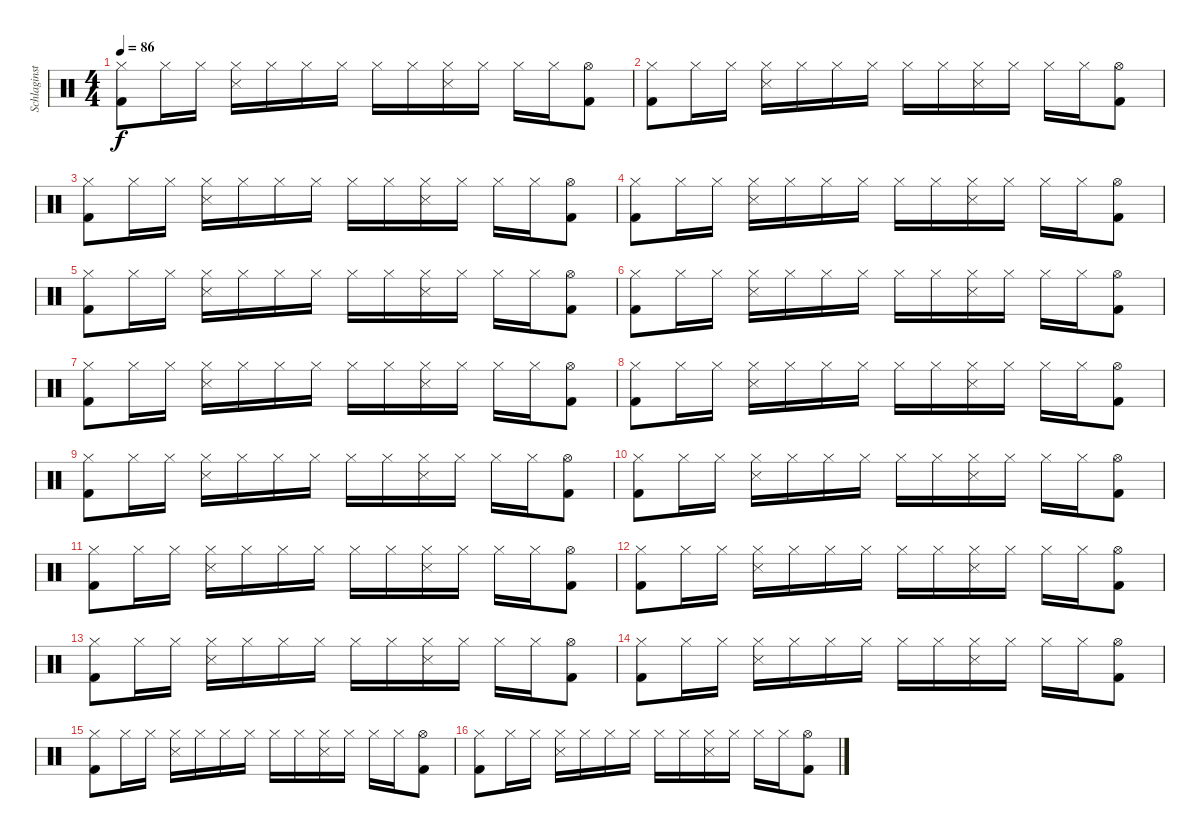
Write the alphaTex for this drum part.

\track ("Schlaginstrumente - Auswahl" "Schlaginst") {instrument percussion}
\staff {score}
\articulation defaults
\ts (4 4)
\tempo 86
\clef neutral
\ks c
("Hi-Hat (closed)" "Kick (hit) 2").8{dy f} "Hi-Hat (closed)".16 "Hi-Hat (closed)".16 ("Hi-Hat (closed)" "Snare (side stick) 3").16 "Hi-Hat (closed)".16 "Hi-Hat (closed)".16 "Hi-Hat (closed)".16 "Hi-Hat (closed)".16 "Hi-Hat (closed)".16 ("Hi-Hat (closed)" "Snare (side stick) 3").16 "Hi-Hat (closed)".16 "Hi-Hat (closed)".16 "Hi-Hat (closed)".16 ("Hi-Hat (open)" "Kick (hit) 2").8 |
("Hi-Hat (closed)" "Kick (hit) 2").8 "Hi-Hat (closed)".16 "Hi-Hat (closed)".16 ("Hi-Hat (closed)" "Snare (side stick) 3").16 "Hi-Hat (closed)".16 "Hi-Hat (closed)".16 "Hi-Hat (closed)".16 "Hi-Hat (closed)".16 "Hi-Hat (closed)".16 ("Hi-Hat (closed)" "Snare (side stick) 3").16 "Hi-Hat (closed)".16 "Hi-Hat (closed)".16 "Hi-Hat (closed)".16 ("Hi-Hat (open)" "Kick (hit) 2").8 |
("Hi-Hat (closed)" "Kick (hit) 2").8 "Hi-Hat (closed)".16 "Hi-Hat (closed)".16 ("Hi-Hat (closed)" "Snare (side stick) 3").16 "Hi-Hat (closed)".16 "Hi-Hat (closed)".16 "Hi-Hat (closed)".16 "Hi-Hat (closed)".16 "Hi-Hat (closed)".16 ("Hi-Hat (closed)" "Snare (side stick) 3").16 "Hi-Hat (closed)".16 "Hi-Hat (closed)".16 "Hi-Hat (closed)".16 ("Hi-Hat (open)" "Kick (hit) 2").8 |
("Hi-Hat (closed)" "Kick (hit) 2").8 "Hi-Hat (closed)".16 "Hi-Hat (closed)".16 ("Hi-Hat (closed)" "Snare (side stick) 3").16 "Hi-Hat (closed)".16 "Hi-Hat (closed)".16 "Hi-Hat (closed)".16 "Hi-Hat (closed)".16 "Hi-Hat (closed)".16 ("Hi-Hat (closed)" "Snare (side stick) 3").16 "Hi-Hat (closed)".16 "Hi-Hat (closed)".16 "Hi-Hat (closed)".16 ("Hi-Hat (open)" "Kick (hit) 2").8 |
("Hi-Hat (closed)" "Kick (hit) 2").8 "Hi-Hat (closed)".16 "Hi-Hat (closed)".16 ("Hi-Hat (closed)" "Snare (side stick) 3").16 "Hi-Hat (closed)".16 "Hi-Hat (closed)".16 "Hi-Hat (closed)".16 "Hi-Hat (closed)".16 "Hi-Hat (closed)".16 ("Hi-Hat (closed)" "Snare (side stick) 3").16 "Hi-Hat (closed)".16 "Hi-Hat (closed)".16 "Hi-Hat (closed)".16 ("Hi-Hat (open)" "Kick (hit) 2").8 |
("Hi-Hat (closed)" "Kick (hit) 2").8 "Hi-Hat (closed)".16 "Hi-Hat (closed)".16 ("Hi-Hat (closed)" "Snare (side stick) 3").16 "Hi-Hat (closed)".16 "Hi-Hat (closed)".16 "Hi-Hat (closed)".16 "Hi-Hat (closed)".16 "Hi-Hat (closed)".16 ("Hi-Hat (closed)" "Snare (side stick) 3").16 "Hi-Hat (closed)".16 "Hi-Hat (closed)".16 "Hi-Hat (closed)".16 ("Hi-Hat (open)" "Kick (hit) 2").8 |
("Hi-Hat (closed)" "Kick (hit) 2").8 "Hi-Hat (closed)".16 "Hi-Hat (closed)".16 ("Hi-Hat (closed)" "Snare (side stick) 3").16 "Hi-Hat (closed)".16 "Hi-Hat (closed)".16 "Hi-Hat (closed)".16 "Hi-Hat (closed)".16 "Hi-Hat (closed)".16 ("Hi-Hat (closed)" "Snare (side stick) 3").16 "Hi-Hat (closed)".16 "Hi-Hat (closed)".16 "Hi-Hat (closed)".16 ("Hi-Hat (open)" "Kick (hit) 2").8 |
("Hi-Hat (closed)" "Kick (hit) 2").8 "Hi-Hat (closed)".16 "Hi-Hat (closed)".16 ("Hi-Hat (closed)" "Snare (side stick) 3").16 "Hi-Hat (closed)".16 "Hi-Hat (closed)".16 "Hi-Hat (closed)".16 "Hi-Hat (closed)".16 "Hi-Hat (closed)".16 ("Hi-Hat (closed)" "Snare (side stick) 3").16 "Hi-Hat (closed)".16 "Hi-Hat (closed)".16 "Hi-Hat (closed)".16 ("Hi-Hat (open)" "Kick (hit) 2").8 |
("Hi-Hat (closed)" "Kick (hit) 2").8 "Hi-Hat (closed)".16 "Hi-Hat (closed)".16 ("Hi-Hat (closed)" "Snare (side stick) 3").16 "Hi-Hat (closed)".16 "Hi-Hat (closed)".16 "Hi-Hat (closed)".16 "Hi-Hat (closed)".16 "Hi-Hat (closed)".16 ("Hi-Hat (closed)" "Snare (side stick) 3").16 "Hi-Hat (closed)".16 "Hi-Hat (closed)".16 "Hi-Hat (closed)".16 ("Hi-Hat (open)" "Kick (hit) 2").8 |
("Hi-Hat (closed)" "Kick (hit) 2").8 "Hi-Hat (closed)".16 "Hi-Hat (closed)".16 ("Hi-Hat (closed)" "Snare (side stick) 3").16 "Hi-Hat (closed)".16 "Hi-Hat (closed)".16 "Hi-Hat (closed)".16 "Hi-Hat (closed)".16 "Hi-Hat (closed)".16 ("Hi-Hat (closed)" "Snare (side stick) 3").16 "Hi-Hat (closed)".16 "Hi-Hat (closed)".16 "Hi-Hat (closed)".16 ("Hi-Hat (open)" "Kick (hit) 2").8 |
("Hi-Hat (closed)" "Kick (hit) 2").8 "Hi-Hat (closed)".16 "Hi-Hat (closed)".16 ("Hi-Hat (closed)" "Snare (side stick) 3").16 "Hi-Hat (closed)".16 "Hi-Hat (closed)".16 "Hi-Hat (closed)".16 "Hi-Hat (closed)".16 "Hi-Hat (closed)".16 ("Hi-Hat (closed)" "Snare (side stick) 3").16 "Hi-Hat (closed)".16 "Hi-Hat (closed)".16 "Hi-Hat (closed)".16 ("Hi-Hat (open)" "Kick (hit) 2").8 |
("Hi-Hat (closed)" "Kick (hit) 2").8 "Hi-Hat (closed)".16 "Hi-Hat (closed)".16 ("Hi-Hat (closed)" "Snare (side stick) 3").16 "Hi-Hat (closed)".16 "Hi-Hat (closed)".16 "Hi-Hat (closed)".16 "Hi-Hat (closed)".16 "Hi-Hat (closed)".16 ("Hi-Hat (closed)" "Snare (side stick) 3").16 "Hi-Hat (closed)".16 "Hi-Hat (closed)".16 "Hi-Hat (closed)".16 ("Hi-Hat (open)" "Kick (hit) 2").8 |
("Hi-Hat (closed)" "Kick (hit) 2").8 "Hi-Hat (closed)".16 "Hi-Hat (closed)".16 ("Hi-Hat (closed)" "Snare (side stick) 3").16 "Hi-Hat (closed)".16 "Hi-Hat (closed)".16 "Hi-Hat (closed)".16 "Hi-Hat (closed)".16 "Hi-Hat (closed)".16 ("Hi-Hat (closed)" "Snare (side stick) 3").16 "Hi-Hat (closed)".16 "Hi-Hat (closed)".16 "Hi-Hat (closed)".16 ("Hi-Hat (open)" "Kick (hit) 2").8 |
("Hi-Hat (closed)" "Kick (hit) 2").8 "Hi-Hat (closed)".16 "Hi-Hat (closed)".16 ("Hi-Hat (closed)" "Snare (side stick) 3").16 "Hi-Hat (closed)".16 "Hi-Hat (closed)".16 "Hi-Hat (closed)".16 "Hi-Hat (closed)".16 "Hi-Hat (closed)".16 ("Hi-Hat (closed)" "Snare (side stick) 3").16 "Hi-Hat (closed)".16 "Hi-Hat (closed)".16 "Hi-Hat (closed)".16 ("Hi-Hat (open)" "Kick (hit) 2").8 |
("Hi-Hat (closed)" "Kick (hit) 2").8 "Hi-Hat (closed)".16 "Hi-Hat (closed)".16 ("Hi-Hat (closed)" "Snare (side stick) 3").16 "Hi-Hat (closed)".16 "Hi-Hat (closed)".16 "Hi-Hat (closed)".16 "Hi-Hat (closed)".16 "Hi-Hat (closed)".16 ("Hi-Hat (closed)" "Snare (side stick) 3").16 "Hi-Hat (closed)".16 "Hi-Hat (closed)".16 "Hi-Hat (closed)".16 ("Hi-Hat (open)" "Kick (hit) 2").8 |
("Hi-Hat (closed)" "Kick (hit) 2").8 "Hi-Hat (closed)".16 "Hi-Hat (closed)".16 ("Hi-Hat (closed)" "Snare (side stick) 3").16 "Hi-Hat (closed)".16 "Hi-Hat (closed)".16 "Hi-Hat (closed)".16 "Hi-Hat (closed)".16 "Hi-Hat (closed)".16 ("Hi-Hat (closed)" "Snare (side stick) 3").16 "Hi-Hat (closed)".16 "Hi-Hat (closed)".16 "Hi-Hat (closed)".16 ("Hi-Hat (open)" "Kick (hit) 2").8
